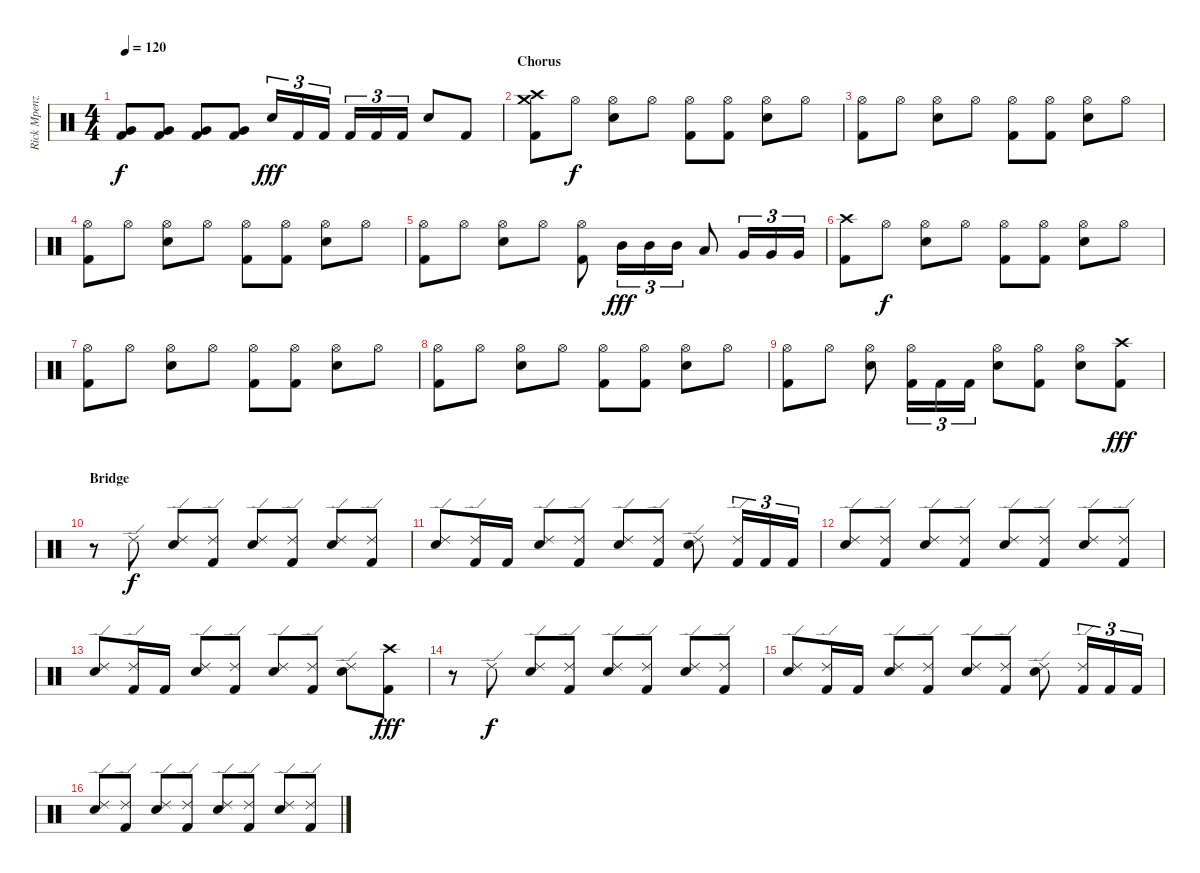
\track ("Rick Mpenza" "Rick Mpenz") {instrument percussion}
\staff {score}
\articulation defaults
\ts (4 4)
\tempo 120
\clef neutral
\ks c
("Very Low Tom (hit)" "Kick (hit) 2").8{dy f} ("Very Low Tom (hit)" "Kick (hit) 2").8 ("Very Low Tom (hit)" "Kick (hit) 2").8 ("Very Low Tom (hit)" "Kick (hit) 2").8 "Snare (hit) 2".16{tu (3 2) dy fff} "Kick (hit) 2".16{tu (3 2)} "Kick (hit) 2".16{tu (3 2)} "Kick (hit) 2".16{tu (3 2)} "Kick (hit) 2".16{tu (3 2)} "Kick (hit) 2".16{tu (3 2)} "Snare (hit) 2".8 "Kick (hit) 2".8 |
\section ("" "Chorus")
("Crash medium (hit)" "Crash high (hit)" "Kick (hit) 2").8 "Hi-Hat (open)".8{dy f} ("Hi-Hat (open)" "Snare (hit) 2").8 "Hi-Hat (open)".8 ("Hi-Hat (open)" "Kick (hit) 2").8 ("Hi-Hat (open)" "Kick (hit) 2").8 ("Hi-Hat (open)" "Snare (hit) 2").8 "Hi-Hat (open)".8 |
("Hi-Hat (open)" "Kick (hit) 2").8 "Hi-Hat (open)".8 ("Hi-Hat (open)" "Snare (hit) 2").8 "Hi-Hat (open)".8 ("Hi-Hat (open)" "Kick (hit) 2").8 ("Hi-Hat (open)" "Kick (hit) 2").8 ("Hi-Hat (open)" "Snare (hit) 2").8 "Hi-Hat (open)".8 |
("Hi-Hat (open)" "Kick (hit) 2").8 "Hi-Hat (open)".8 ("Hi-Hat (open)" "Snare (hit) 2").8 "Hi-Hat (open)".8 ("Hi-Hat (open)" "Kick (hit) 2").8 ("Hi-Hat (open)" "Kick (hit) 2").8 ("Hi-Hat (open)" "Snare (hit) 2").8 "Hi-Hat (open)".8 |
("Hi-Hat (open)" "Kick (hit) 2").8 "Hi-Hat (open)".8 ("Hi-Hat (open)" "Snare (hit) 2").8 "Hi-Hat (open)".8 ("Hi-Hat (open)" "Kick (hit) 2").8 "Mid Tom (hit)".16{tu (3 2) dy fff} "Mid Tom (hit)".16{tu (3 2)} "Mid Tom (hit)".16{tu (3 2)} "Low Tom (hit)".8 "Very Low Tom (hit)".16{tu (3 2)} "Very Low Tom (hit)".16{tu (3 2)} "Very Low Tom (hit)".16{tu (3 2)} |
("Crash high (hit)" "Kick (hit) 2").8 "Hi-Hat (open)".8{dy f} ("Hi-Hat (open)" "Snare (hit) 2").8 "Hi-Hat (open)".8 ("Hi-Hat (open)" "Kick (hit) 2").8 ("Hi-Hat (open)" "Kick (hit) 2").8 ("Hi-Hat (open)" "Snare (hit) 2").8 "Hi-Hat (open)".8 |
("Hi-Hat (open)" "Kick (hit) 2").8 "Hi-Hat (open)".8 ("Hi-Hat (open)" "Snare (hit) 2").8 "Hi-Hat (open)".8 ("Hi-Hat (open)" "Kick (hit) 2").8 ("Hi-Hat (open)" "Kick (hit) 2").8 ("Hi-Hat (open)" "Snare (hit) 2").8 "Hi-Hat (open)".8 |
("Hi-Hat (open)" "Kick (hit) 2").8 "Hi-Hat (open)".8 ("Hi-Hat (open)" "Snare (hit) 2").8 "Hi-Hat (open)".8 ("Hi-Hat (open)" "Kick (hit) 2").8 ("Hi-Hat (open)" "Kick (hit) 2").8 ("Hi-Hat (open)" "Snare (hit) 2").8 "Hi-Hat (open)".8 |
("Hi-Hat (open)" "Kick (hit) 2").8 "Hi-Hat (open)".8 ("Hi-Hat (open)" "Snare (hit) 2").8 ("Hi-Hat (open)" "Kick (hit) 2").16{tu (3 2)} "Kick (hit) 2".16{tu (3 2)} "Kick (hit) 2".16{tu (3 2)} ("Hi-Hat (open)" "Snare (hit) 2").8 ("Hi-Hat (open)" "Kick (hit) 2").8 ("Hi-Hat (open)" "Snare (hit) 2").8 ("Crash high (hit)" "Kick (hit) 2").8{dy fff} |
\section ("" "Bridge")
r.8 "Ride (edge) 2".8{dy f} ("Ride (edge) 2" "Snare (hit) 2").8 ("Ride (edge) 2" "Kick (hit) 2").8 ("Ride (edge) 2" "Snare (hit) 2").8 ("Ride (edge) 2" "Kick (hit) 2").8 ("Ride (edge) 2" "Snare (hit) 2").8 ("Ride (edge) 2" "Kick (hit) 2").8 |
("Ride (edge) 2" "Snare (hit) 2").8 ("Ride (edge) 2" "Kick (hit) 2").16 "Kick (hit) 2".16 ("Ride (edge) 2" "Snare (hit) 2").8 ("Ride (edge) 2" "Kick (hit) 2").8 ("Ride (edge) 2" "Snare (hit) 2").8 ("Ride (edge) 2" "Kick (hit) 2").8 ("Ride (edge) 2" "Snare (hit) 2").8 ("Ride (edge) 2" "Kick (hit) 2").16{tu (3 2)} "Kick (hit) 2".16{tu (3 2)} "Kick (hit) 2".16{tu (3 2)} |
("Ride (edge) 2" "Snare (hit) 2").8 ("Ride (edge) 2" "Kick (hit) 2").8 ("Ride (edge) 2" "Snare (hit) 2").8 ("Ride (edge) 2" "Kick (hit) 2").8 ("Ride (edge) 2" "Snare (hit) 2").8 ("Ride (edge) 2" "Kick (hit) 2").8 ("Ride (edge) 2" "Snare (hit) 2").8 ("Ride (edge) 2" "Kick (hit) 2").8 |
("Ride (edge) 2" "Snare (hit) 2").8 ("Ride (edge) 2" "Kick (hit) 2").16 "Kick (hit) 2".16 ("Ride (edge) 2" "Snare (hit) 2").8 ("Ride (edge) 2" "Kick (hit) 2").8 ("Ride (edge) 2" "Snare (hit) 2").8 ("Ride (edge) 2" "Kick (hit) 2").8 ("Ride (edge) 2" "Snare (hit) 2").8 ("Crash high (hit)" "Kick (hit) 2").8{dy fff} |
r.8 "Ride (edge) 2".8{dy f} ("Ride (edge) 2" "Snare (hit) 2").8 ("Ride (edge) 2" "Kick (hit) 2").8 ("Ride (edge) 2" "Snare (hit) 2").8 ("Ride (edge) 2" "Kick (hit) 2").8 ("Ride (edge) 2" "Snare (hit) 2").8 ("Ride (edge) 2" "Kick (hit) 2").8 |
("Ride (edge) 2" "Snare (hit) 2").8 ("Ride (edge) 2" "Kick (hit) 2").16 "Kick (hit) 2".16 ("Ride (edge) 2" "Snare (hit) 2").8 ("Ride (edge) 2" "Kick (hit) 2").8 ("Ride (edge) 2" "Snare (hit) 2").8 ("Ride (edge) 2" "Kick (hit) 2").8 ("Ride (edge) 2" "Snare (hit) 2").8 ("Ride (edge) 2" "Kick (hit) 2").16{tu (3 2)} "Kick (hit) 2".16{tu (3 2)} "Kick (hit) 2".16{tu (3 2)} |
("Ride (edge) 2" "Snare (hit) 2").8 ("Ride (edge) 2" "Kick (hit) 2").8 ("Ride (edge) 2" "Snare (hit) 2").8 ("Ride (edge) 2" "Kick (hit) 2").8 ("Ride (edge) 2" "Snare (hit) 2").8 ("Ride (edge) 2" "Kick (hit) 2").8 ("Ride (edge) 2" "Snare (hit) 2").8 ("Ride (edge) 2" "Kick (hit) 2").8
